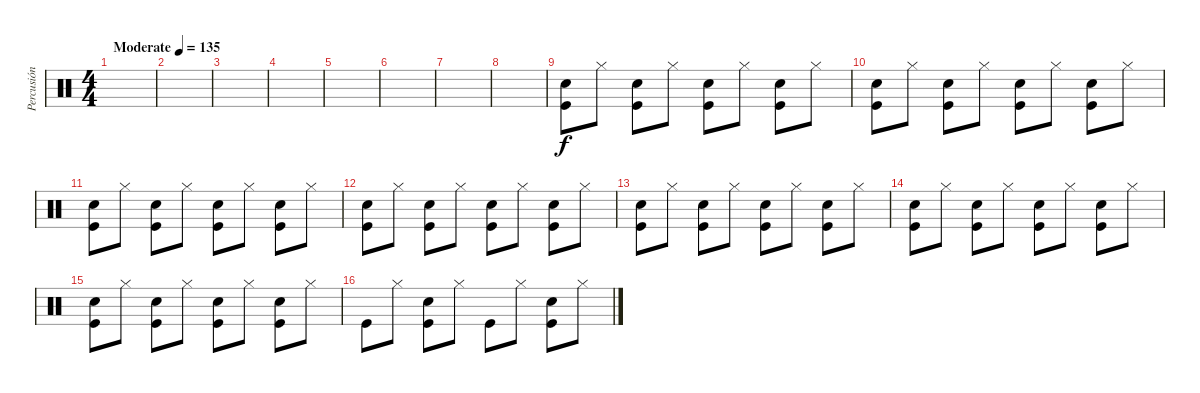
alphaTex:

\track ("Percusión" "Percusión") {instrument percussion}
\staff {score}
\articulation defaults
\ts (4 4)
\tempo (135 "Moderate")
\clef neutral
\ks c
|
|
|
|
|
|
|
|
("Hand Clap (hit)" "Kick (hit)").8{volume 5} "Hi-Hat (closed)".8 ("Hand Clap (hit)" "Kick (hit)").8 "Hi-Hat (closed)".8 ("Hand Clap (hit)" "Kick (hit)").8 "Hi-Hat (closed)".8 ("Hand Clap (hit)" "Kick (hit)").8 "Hi-Hat (closed)".8 |
("Hand Clap (hit)" "Kick (hit)").8 "Hi-Hat (closed)".8 ("Hand Clap (hit)" "Kick (hit)").8 "Hi-Hat (closed)".8 ("Hand Clap (hit)" "Kick (hit)").8 "Hi-Hat (closed)".8 ("Hand Clap (hit)" "Kick (hit)").8 "Hi-Hat (closed)".8 |
("Hand Clap (hit)" "Kick (hit)").8{volume 7} "Hi-Hat (closed)".8 ("Hand Clap (hit)" "Kick (hit)").8 "Hi-Hat (closed)".8 ("Hand Clap (hit)" "Kick (hit)").8 "Hi-Hat (closed)".8 ("Hand Clap (hit)" "Kick (hit)").8 "Hi-Hat (closed)".8 |
("Hand Clap (hit)" "Kick (hit)").8 "Hi-Hat (closed)".8 ("Hand Clap (hit)" "Kick (hit)").8 "Hi-Hat (closed)".8 ("Hand Clap (hit)" "Kick (hit)").8 "Hi-Hat (closed)".8 ("Hand Clap (hit)" "Kick (hit)").8 "Hi-Hat (closed)".8 |
("Hand Clap (hit)" "Kick (hit)").8 "Hi-Hat (closed)".8 ("Hand Clap (hit)" "Kick (hit)").8 "Hi-Hat (closed)".8 ("Hand Clap (hit)" "Kick (hit)").8 "Hi-Hat (closed)".8 ("Hand Clap (hit)" "Kick (hit)").8 "Hi-Hat (closed)".8 |
("Hand Clap (hit)" "Kick (hit)").8{volume 10} "Hi-Hat (closed)".8 ("Hand Clap (hit)" "Kick (hit)").8 "Hi-Hat (closed)".8 ("Hand Clap (hit)" "Kick (hit)").8 "Hi-Hat (closed)".8 ("Hand Clap (hit)" "Kick (hit)").8 "Hi-Hat (closed)".8 |
("Hand Clap (hit)" "Kick (hit)").8 "Hi-Hat (closed)".8 ("Hand Clap (hit)" "Kick (hit)").8 "Hi-Hat (closed)".8 ("Hand Clap (hit)" "Kick (hit)").8 "Hi-Hat (closed)".8 ("Hand Clap (hit)" "Kick (hit)").8 "Hi-Hat (closed)".8 |
"Kick (hit)".8{volume 13} "Hi-Hat (closed)".8 ("Hand Clap (hit)" "Kick (hit)").8 "Hi-Hat (closed)".8 "Kick (hit)".8 "Hi-Hat (closed)".8 ("Hand Clap (hit)" "Kick (hit)").8 "Hi-Hat (closed)".8
